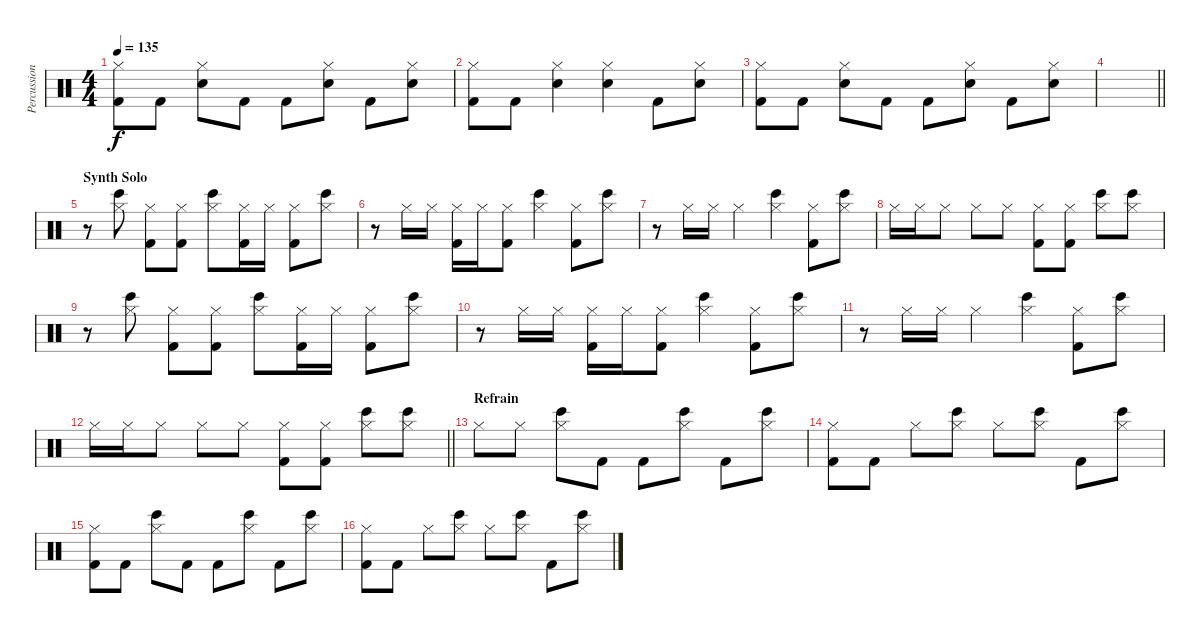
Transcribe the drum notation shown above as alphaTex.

\track ("Percussion" "Percussion") {instrument percussion}
\staff {score}
\articulation defaults
\ts (4 4)
\tempo 135
\clef neutral
\ks c
("Hi-Hat (closed)" "Kick (hit) 2").8{dy f} "Kick (hit) 2".8 ("Hi-Hat (closed)" "Snare (hit) 2").8 "Kick (hit) 2".8 "Kick (hit) 2".8 ("Hi-Hat (closed)" "Snare (hit) 2").8 "Kick (hit) 2".8 ("Hi-Hat (closed)" "Snare (hit) 2").8 |
("Hi-Hat (closed)" "Kick (hit) 2").8 "Kick (hit) 2".8 ("Hi-Hat (closed)" "Snare (hit) 2").4 ("Hi-Hat (closed)" "Snare (hit) 2").4 "Kick (hit) 2".8 ("Hi-Hat (closed)" "Snare (hit) 2").8 |
("Hi-Hat (closed)" "Kick (hit) 2").8 "Kick (hit) 2".8 ("Hi-Hat (closed)" "Snare (hit) 2").8 "Kick (hit) 2".8 "Kick (hit) 2".8 ("Hi-Hat (closed)" "Snare (hit) 2").8 "Kick (hit) 2".8 ("Hi-Hat (closed)" "Snare (hit) 2").8 |
\barLineRight lightlight
|
\section ("" "Synth Solo")
r.8 ("Hi-Hat (closed)" "Bongo High (hit)").8 ("Hi-Hat (closed)" "Kick (hit) 2").8 ("Hi-Hat (closed)" "Kick (hit) 2").8 ("Hi-Hat (closed)" "Bongo High (hit)").8 ("Hi-Hat (closed)" "Kick (hit) 2").16 "Hi-Hat (closed)".16 ("Hi-Hat (closed)" "Kick (hit) 2").8 ("Hi-Hat (closed)" "Bongo High (hit)").8 |
r.8 "Hi-Hat (closed)".16 "Hi-Hat (closed)".16 ("Hi-Hat (closed)" "Kick (hit) 2").16 "Hi-Hat (closed)".16 ("Hi-Hat (closed)" "Kick (hit) 2").8 ("Hi-Hat (closed)" "Bongo High (hit)").4 ("Hi-Hat (closed)" "Kick (hit) 2").8 ("Hi-Hat (closed)" "Bongo High (hit)").8 |
r.8 "Hi-Hat (closed)".16 "Hi-Hat (closed)".16 "Hi-Hat (closed)".4 ("Hi-Hat (closed)" "Bongo High (hit)").4 ("Hi-Hat (closed)" "Kick (hit) 2").8 ("Hi-Hat (closed)" "Bongo High (hit)").8 |
"Hi-Hat (closed)".16 "Hi-Hat (closed)".16 "Hi-Hat (closed)".8 "Hi-Hat (closed)".8 "Hi-Hat (closed)".8 ("Hi-Hat (closed)" "Kick (hit) 2").8 ("Hi-Hat (closed)" "Kick (hit) 2").8 ("Hi-Hat (closed)" "Bongo High (hit)").8 ("Hi-Hat (closed)" "Bongo High (hit)").8 |
r.8 ("Hi-Hat (closed)" "Bongo High (hit)").8 ("Hi-Hat (closed)" "Kick (hit) 2").8 ("Hi-Hat (closed)" "Kick (hit) 2").8 ("Hi-Hat (closed)" "Bongo High (hit)").8 ("Hi-Hat (closed)" "Kick (hit) 2").16 "Hi-Hat (closed)".16 ("Hi-Hat (closed)" "Kick (hit) 2").8 ("Hi-Hat (closed)" "Bongo High (hit)").8 |
r.8 "Hi-Hat (closed)".16 "Hi-Hat (closed)".16 ("Hi-Hat (closed)" "Kick (hit) 2").16 "Hi-Hat (closed)".16 ("Hi-Hat (closed)" "Kick (hit) 2").8 ("Hi-Hat (closed)" "Bongo High (hit)").4 ("Hi-Hat (closed)" "Kick (hit) 2").8 ("Hi-Hat (closed)" "Bongo High (hit)").8 |
r.8 "Hi-Hat (closed)".16 "Hi-Hat (closed)".16 "Hi-Hat (closed)".4 ("Hi-Hat (closed)" "Bongo High (hit)").4 ("Hi-Hat (closed)" "Kick (hit) 2").8 ("Hi-Hat (closed)" "Bongo High (hit)").8 |
\barLineRight lightlight "Hi-Hat (closed)".16 "Hi-Hat (closed)".16 "Hi-Hat (closed)".8 "Hi-Hat (closed)".8 "Hi-Hat (closed)".8
("Hi-Hat (closed)" "Kick (hit) 2").8 ("Hi-Hat (closed)" "Kick (hit) 2").8 ("Hi-Hat (closed)" "Bongo High (hit)").8 ("Hi-Hat (closed)" "Bongo High (hit)").8 |
\section ("" "Refrain")
"Hi-Hat (closed)".8 "Hi-Hat (closed)".8 ("Hi-Hat (closed)" "Bongo High (hit)").8 "Kick (hit) 2".8 "Kick (hit) 2".8 ("Hi-Hat (closed)" "Bongo High (hit)").8 "Kick (hit) 2".8 ("Hi-Hat (closed)" "Bongo High (hit)").8 |
("Hi-Hat (closed)" "Kick (hit) 2").8 "Kick (hit) 2".8 "Hi-Hat (closed)".8 ("Hi-Hat (closed)" "Bongo High (hit)").8 "Hi-Hat (closed)".8 ("Hi-Hat (closed)" "Bongo High (hit)").8 "Kick (hit) 2".8 ("Hi-Hat (closed)" "Bongo High (hit)").8 |
("Hi-Hat (closed)" "Kick (hit) 2").8 "Kick (hit) 2".8 ("Hi-Hat (closed)" "Bongo High (hit)").8 "Kick (hit) 2".8 "Kick (hit) 2".8 ("Hi-Hat (closed)" "Bongo High (hit)").8 "Kick (hit) 2".8 ("Hi-Hat (closed)" "Bongo High (hit)").8 |
("Hi-Hat (closed)" "Kick (hit) 2").8 "Kick (hit) 2".8 "Hi-Hat (closed)".8 ("Hi-Hat (closed)" "Bongo High (hit)").8 "Hi-Hat (closed)".8 ("Hi-Hat (closed)" "Bongo High (hit)").8 "Kick (hit) 2".8 ("Hi-Hat (closed)" "Bongo High (hit)").8
